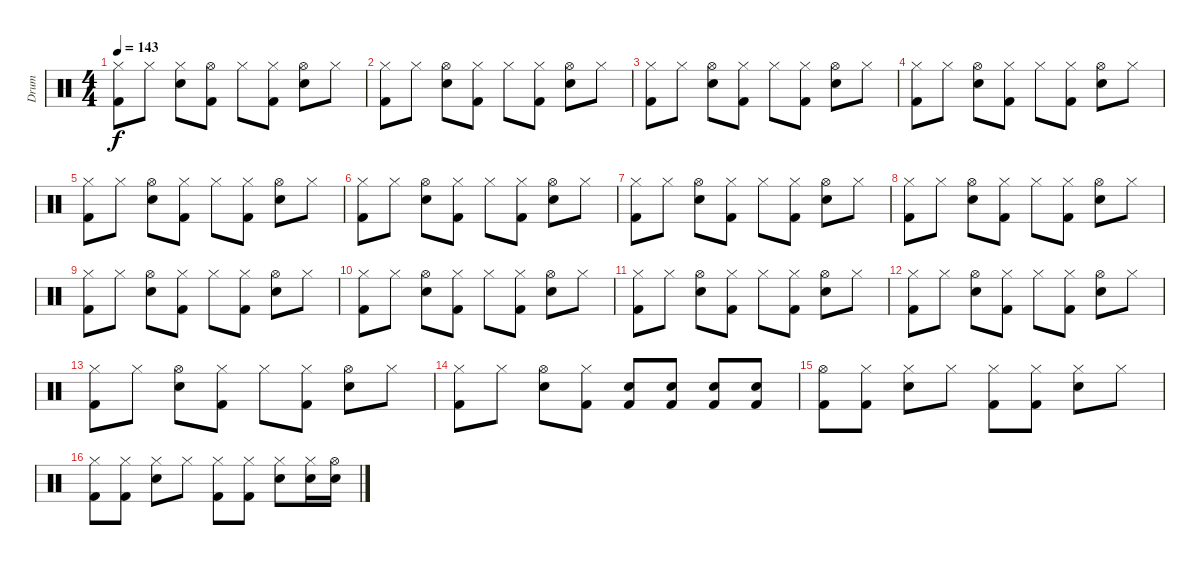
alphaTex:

\track ("Drum" "Drum") {instrument percussion}
\staff {score}
\articulation defaults
\ts (4 4)
\tempo 143
\clef neutral
\ks c
("Hi-Hat (closed)" "Kick (hit) 2").8{dy f} "Hi-Hat (closed)".8 ("Hi-Hat (closed)" "Electric Snare (hit)").8 ("Hi-Hat (open)" "Kick (hit) 2").8 "Hi-Hat (closed)".8 ("Hi-Hat (closed)" "Kick (hit) 2").8 ("Hi-Hat (open)" "Electric Snare (hit)").8 "Hi-Hat (closed)".8 |
("Hi-Hat (closed)" "Kick (hit) 2").8 "Hi-Hat (closed)".8 ("Hi-Hat (open)" "Electric Snare (hit)").8 ("Hi-Hat (closed)" "Kick (hit) 2").8 "Hi-Hat (closed)".8 ("Hi-Hat (closed)" "Kick (hit) 2").8 ("Hi-Hat (open)" "Electric Snare (hit)").8 "Hi-Hat (closed)".8 |
("Hi-Hat (closed)" "Kick (hit) 2").8 "Hi-Hat (closed)".8 ("Hi-Hat (open)" "Electric Snare (hit)").8 ("Hi-Hat (closed)" "Kick (hit) 2").8 "Hi-Hat (closed)".8 ("Hi-Hat (closed)" "Kick (hit) 2").8 ("Hi-Hat (open)" "Electric Snare (hit)").8 "Hi-Hat (closed)".8 |
("Hi-Hat (closed)" "Kick (hit) 2").8 "Hi-Hat (closed)".8 ("Hi-Hat (open)" "Electric Snare (hit)").8 ("Hi-Hat (closed)" "Kick (hit) 2").8 "Hi-Hat (closed)".8 ("Hi-Hat (closed)" "Kick (hit) 2").8 ("Hi-Hat (open)" "Electric Snare (hit)").8 "Hi-Hat (closed)".8 |
("Hi-Hat (closed)" "Kick (hit) 2").8 "Hi-Hat (closed)".8 ("Hi-Hat (open)" "Electric Snare (hit)").8 ("Hi-Hat (closed)" "Kick (hit) 2").8 "Hi-Hat (closed)".8 ("Hi-Hat (closed)" "Kick (hit) 2").8 ("Hi-Hat (open)" "Electric Snare (hit)").8 "Hi-Hat (closed)".8 |
("Hi-Hat (closed)" "Kick (hit) 2").8 "Hi-Hat (closed)".8 ("Hi-Hat (open)" "Electric Snare (hit)").8 ("Hi-Hat (closed)" "Kick (hit) 2").8 "Hi-Hat (closed)".8 ("Hi-Hat (closed)" "Kick (hit) 2").8 ("Hi-Hat (open)" "Electric Snare (hit)").8 "Hi-Hat (closed)".8 |
("Hi-Hat (closed)" "Kick (hit) 2").8 "Hi-Hat (closed)".8 ("Hi-Hat (open)" "Electric Snare (hit)").8 ("Hi-Hat (closed)" "Kick (hit) 2").8 "Hi-Hat (closed)".8 ("Hi-Hat (closed)" "Kick (hit) 2").8 ("Hi-Hat (open)" "Electric Snare (hit)").8 "Hi-Hat (closed)".8 |
("Hi-Hat (closed)" "Kick (hit) 2").8 "Hi-Hat (closed)".8 ("Hi-Hat (open)" "Electric Snare (hit)").8 ("Hi-Hat (closed)" "Kick (hit) 2").8 "Hi-Hat (closed)".8 ("Hi-Hat (closed)" "Kick (hit) 2").8 ("Hi-Hat (open)" "Electric Snare (hit)").8 "Hi-Hat (closed)".8 |
("Hi-Hat (closed)" "Kick (hit) 2").8 "Hi-Hat (closed)".8 ("Hi-Hat (open)" "Electric Snare (hit)").8 ("Hi-Hat (closed)" "Kick (hit) 2").8 "Hi-Hat (closed)".8 ("Hi-Hat (closed)" "Kick (hit) 2").8 ("Hi-Hat (open)" "Electric Snare (hit)").8 "Hi-Hat (closed)".8 |
("Hi-Hat (closed)" "Kick (hit) 2").8 "Hi-Hat (closed)".8 ("Hi-Hat (open)" "Electric Snare (hit)").8 ("Hi-Hat (closed)" "Kick (hit) 2").8 "Hi-Hat (closed)".8 ("Hi-Hat (closed)" "Kick (hit) 2").8 ("Hi-Hat (open)" "Electric Snare (hit)").8 "Hi-Hat (closed)".8 |
("Hi-Hat (closed)" "Kick (hit) 2").8 "Hi-Hat (closed)".8 ("Hi-Hat (open)" "Electric Snare (hit)").8 ("Hi-Hat (closed)" "Kick (hit) 2").8 "Hi-Hat (closed)".8 ("Hi-Hat (closed)" "Kick (hit) 2").8 ("Hi-Hat (open)" "Electric Snare (hit)").8 "Hi-Hat (closed)".8 |
("Hi-Hat (closed)" "Kick (hit) 2").8 "Hi-Hat (closed)".8 ("Hi-Hat (open)" "Electric Snare (hit)").8 ("Hi-Hat (closed)" "Kick (hit) 2").8 "Hi-Hat (closed)".8 ("Hi-Hat (closed)" "Kick (hit) 2").8 ("Hi-Hat (open)" "Electric Snare (hit)").8 "Hi-Hat (closed)".8 |
("Hi-Hat (closed)" "Kick (hit) 2").8 "Hi-Hat (closed)".8 ("Hi-Hat (open)" "Electric Snare (hit)").8 ("Hi-Hat (closed)" "Kick (hit) 2").8 "Hi-Hat (closed)".8 ("Hi-Hat (closed)" "Kick (hit) 2").8 ("Hi-Hat (open)" "Electric Snare (hit)").8 "Hi-Hat (closed)".8 |
("Hi-Hat (closed)" "Kick (hit) 2").8 "Hi-Hat (closed)".8 ("Hi-Hat (open)" "Electric Snare (hit)").8 ("Hi-Hat (closed)" "Kick (hit) 2").8 ("Electric Snare (hit)" "Kick (hit) 2").8 ("Electric Snare (hit)" "Kick (hit) 2").8 ("Electric Snare (hit)" "Kick (hit) 2").8 ("Electric Snare (hit)" "Kick (hit) 2").8 |
("Hi-Hat (open)" "Kick (hit) 2").8 ("Hi-Hat (closed)" "Kick (hit) 2").8 ("Hi-Hat (closed)" "Electric Snare (hit)").8 "Hi-Hat (closed)".8 ("Hi-Hat (closed)" "Kick (hit) 2").8 ("Hi-Hat (closed)" "Kick (hit) 2").8 ("Hi-Hat (closed)" "Electric Snare (hit)").8 "Hi-Hat (closed)".8 |
("Hi-Hat (closed)" "Kick (hit) 2").8 ("Hi-Hat (closed)" "Kick (hit) 2").8 ("Hi-Hat (closed)" "Electric Snare (hit)").8 "Hi-Hat (closed)".8 ("Hi-Hat (closed)" "Kick (hit) 2").8 ("Hi-Hat (closed)" "Kick (hit) 2").8 ("Hi-Hat (closed)" "Electric Snare (hit)").8 ("Hi-Hat (closed)" "Electric Snare (hit)").16 ("Hi-Hat (open)" "Electric Snare (hit)").16
